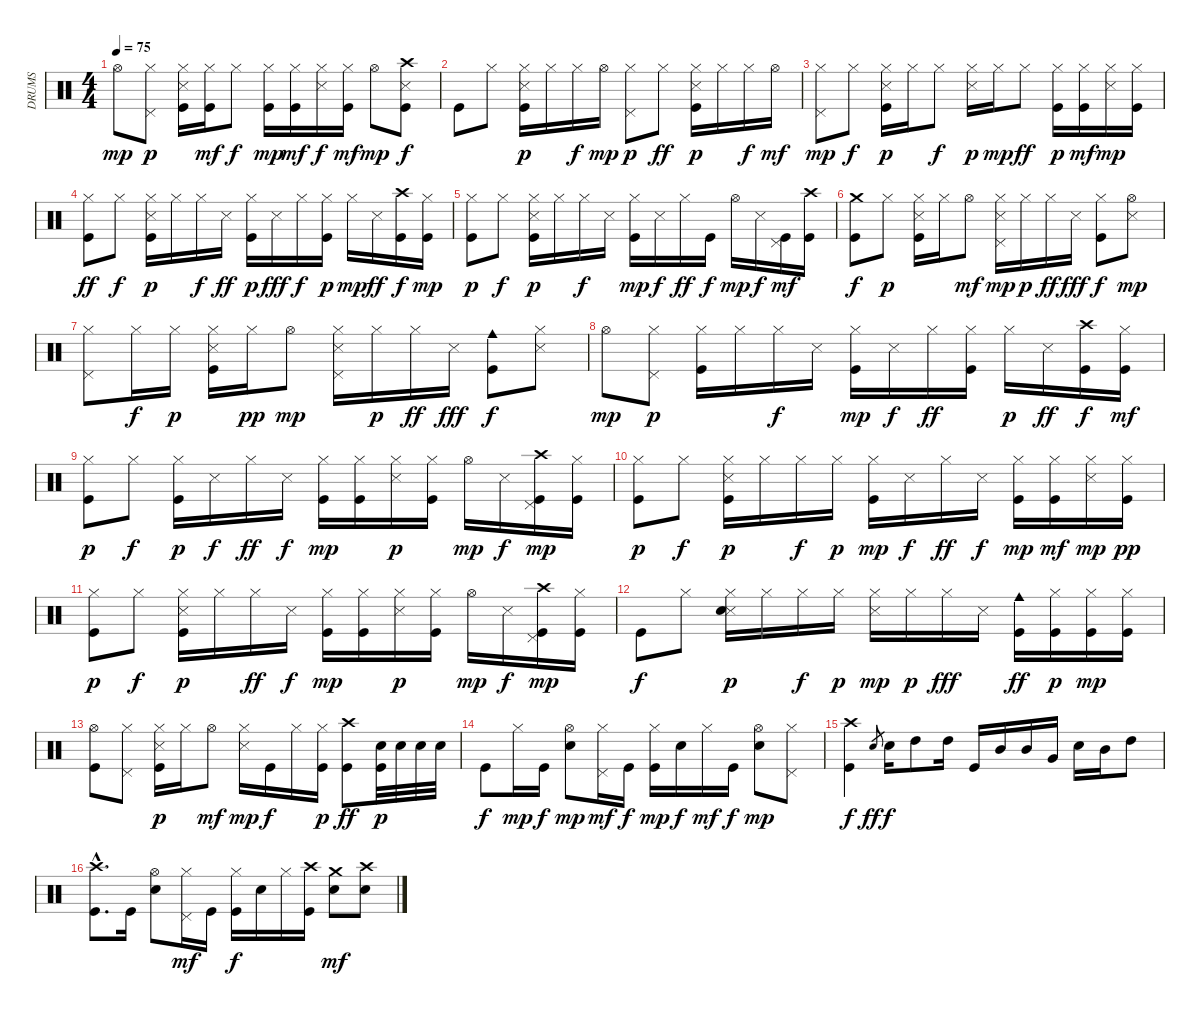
\track ("DRUMS" "DRUMS") {instrument percussion}
\staff {score}
\articulation defaults
\ts (4 4)
\tempo 75
\clef neutral
\ks c "Hi-Hat (open)".8{dy mp}
("Hi-Hat (closed)" "Pedal Hi-Hat (hit)").8{dy p} ("Hi-Hat (closed)" "Snare (side stick) 3" "Kick (hit)").16 ("Hi-Hat (closed)" "Kick (hit)").16{dy mf} "Hi-Hat (closed)".8{dy f} ("Hi-Hat (closed)" "Kick (hit)").16{dy mp} ("Hi-Hat (closed)" "Kick (hit)").16{dy mf} ("Hi-Hat (closed)" "Snare (side stick) 3").16{dy f} ("Hi-Hat (closed)" "Kick (hit)").16{dy mf} "Hi-Hat (open)".8{dy mp} ("Crash high (hit)" "Snare (side stick) 3" "Kick (hit)").8{dy f} |
"Kick (hit)".8 "Hi-Hat (closed)".8 ("Hi-Hat (closed)" "Snare (side stick) 3" "Kick (hit)").16{dy p} "Hi-Hat (closed)".16 "Hi-Hat (closed)".16{dy f} "Hi-Hat (open)".16{dy mp} ("Hi-Hat (closed)" "Pedal Hi-Hat (hit)").8{dy p} "Hi-Hat (closed)".8{dy ff} ("Hi-Hat (closed)" "Snare (side stick) 3" "Kick (hit)").16{dy p} "Hi-Hat (closed)".16 "Hi-Hat (closed)".16{dy f} "Hi-Hat (open)".16{dy mf} |
("Hi-Hat (closed)" "Pedal Hi-Hat (hit)").8{dy mp} "Hi-Hat (closed)".8{dy f} ("Hi-Hat (closed)" "Snare (side stick) 3" "Kick (hit)").16{dy p} "Hi-Hat (closed)".16 "Hi-Hat (closed)".8{dy f} ("Hi-Hat (closed)" "Snare (side stick) 3").16{dy p} "Hi-Hat (closed)".16{dy mp} "Hi-Hat (closed)".8{dy ff} ("Hi-Hat (closed)" "Kick (hit)").16{dy p} ("Hi-Hat (closed)" "Kick (hit)").16{dy mf} ("Hi-Hat (closed)" "Snare (side stick) 3").16{dy mp} ("Hi-Hat (closed)" "Kick (hit)").16 |
("Hi-Hat (closed)" "Kick (hit)").8{dy ff} "Hi-Hat (closed)".8{dy f} ("Hi-Hat (closed)" "Snare (side stick) 3" "Kick (hit)").16{dy p} "Hi-Hat (closed)".16 "Hi-Hat (closed)".16{dy f} "Snare (side stick) 3".16{dy ff} ("Hi-Hat (closed)" "Kick (hit)").16{dy p} "Snare (side stick) 3".16{dy fff} "Hi-Hat (closed)".16{dy f} ("Hi-Hat (closed)" "Kick (hit)").16{dy p} "Hi-Hat (closed)".16{dy mp} "Snare (side stick) 3".16{dy ff} ("Crash high (hit)" "Kick (hit)").16{dy f} ("Hi-Hat (closed)" "Kick (hit)").16{dy mp} |
("Hi-Hat (closed)" "Kick (hit)").8{dy p} "Hi-Hat (closed)".8{dy f} ("Hi-Hat (closed)" "Snare (side stick) 3" "Kick (hit)").16{dy p} "Hi-Hat (closed)".16 "Hi-Hat (closed)".16{dy f} "Snare (side stick) 3".16 ("Hi-Hat (closed)" "Kick (hit)").16{dy mp} "Snare (side stick) 3".16{dy f} "Hi-Hat (closed)".16{dy ff} "Kick (hit)".16{dy f} "Hi-Hat (open)".16{dy mp} "Snare (side stick) 3".16{dy f} ("Pedal Hi-Hat (hit)" "Kick (hit)").16{dy mf} ("Crash high (hit)" "Kick (hit)").16 |
("Crash medium (hit)" "Kick (hit)").8{dy f} "Hi-Hat (closed)".8{dy p} ("Hi-Hat (closed)" "Snare (side stick) 3" "Kick (hit)").16 "Hi-Hat (closed)".16 "Hi-Hat (open)".8{dy mf} ("Hi-Hat (closed)" "Snare (side stick) 3" "Pedal Hi-Hat (hit)").16{dy mp} "Hi-Hat (closed)".16{dy p} "Hi-Hat (closed)".16{dy ff} "Snare (side stick) 3".16{dy fff} ("Hi-Hat (closed)" "Kick (hit)").8{dy f} ("Hi-Hat (open)" "Snare (side stick) 3").8{dy mp} |
("Hi-Hat (closed)" "Pedal Hi-Hat (hit)").8 "Hi-Hat (closed)".16{dy f} "Hi-Hat (closed)".16{dy p} ("Hi-Hat (closed)" "Snare (side stick) 3" "Kick (hit)").16 "Hi-Hat (closed)".16{dy pp} "Hi-Hat (open)".8{dy mp} ("Hi-Hat (closed)" "Snare (side stick) 3" "Pedal Hi-Hat (hit)").16 "Hi-Hat (closed)".16{dy p} "Hi-Hat (closed)".16{dy ff} "Snare (side stick) 3".16{dy fff} ("Cowbell medium (hit)" "Kick (hit)").8{dy f} ("Hi-Hat (closed)" "Snare (side stick) 3").8 |
"Hi-Hat (open)".8{dy mp} ("Hi-Hat (closed)" "Pedal Hi-Hat (hit)").8{dy p} ("Hi-Hat (closed)" "Kick (hit)").16 "Hi-Hat (closed)".16 "Hi-Hat (closed)".16{dy f} "Snare (side stick) 3".16 ("Hi-Hat (closed)" "Kick (hit)").16{dy mp} "Snare (side stick) 3".16{dy f} "Hi-Hat (closed)".16{dy ff} ("Hi-Hat (closed)" "Kick (hit)").16 "Hi-Hat (closed)".16{dy p} "Snare (side stick) 3".16{dy ff} ("Crash high (hit)" "Kick (hit)").16{dy f} ("Hi-Hat (closed)" "Kick (hit)").16{dy mf} |
("Hi-Hat (closed)" "Kick (hit)").8{dy p} "Hi-Hat (closed)".8{dy f} ("Hi-Hat (closed)" "Kick (hit)").16{dy p} "Snare (side stick) 3".16{dy f} "Hi-Hat (closed)".16{dy ff} "Snare (side stick) 3".16{dy f} ("Hi-Hat (closed)" "Kick (hit)").16{dy mp} ("Hi-Hat (closed)" "Kick (hit)").16 ("Hi-Hat (closed)" "Snare (side stick) 3").16{dy p} ("Hi-Hat (closed)" "Kick (hit)").16 "Hi-Hat (open)".16{dy mp} "Snare (side stick) 3".16{dy f} ("Crash high (hit)" "Pedal Hi-Hat (hit)" "Kick (hit)").16{dy mp} ("Hi-Hat (closed)" "Kick (hit)").16 |
("Hi-Hat (closed)" "Kick (hit)").8{dy p} "Hi-Hat (closed)".8{dy f} ("Hi-Hat (closed)" "Snare (side stick) 3" "Kick (hit)").16{dy p} "Hi-Hat (closed)".16 "Hi-Hat (closed)".16{dy f} "Hi-Hat (closed)".16{dy p} ("Hi-Hat (closed)" "Kick (hit)").16{dy mp} "Snare (side stick) 3".16{dy f} "Hi-Hat (closed)".16{dy ff} "Snare (side stick) 3".16{dy f} ("Hi-Hat (closed)" "Kick (hit)").16{dy mp} ("Hi-Hat (closed)" "Kick (hit)").16{dy mf} ("Hi-Hat (closed)" "Snare (side stick) 3").16{dy mp} ("Hi-Hat (closed)" "Kick (hit)").16{dy pp} |
("Hi-Hat (closed)" "Kick (hit)").8{dy p} "Hi-Hat (closed)".8{dy f} ("Hi-Hat (closed)" "Snare (side stick) 3" "Kick (hit)").16{dy p} "Hi-Hat (closed)".16 "Hi-Hat (closed)".16{dy ff} "Snare (side stick) 3".16{dy f} ("Hi-Hat (closed)" "Kick (hit)").16{dy mp} ("Hi-Hat (closed)" "Kick (hit)").16 ("Hi-Hat (closed)" "Snare (side stick) 3").16{dy p} ("Hi-Hat (closed)" "Kick (hit)").16 "Hi-Hat (open)".16{dy mp} "Snare (side stick) 3".16{dy f} ("Crash high (hit)" "Pedal Hi-Hat (hit)" "Kick (hit)").16{dy mp} ("Hi-Hat (closed)" "Kick (hit)").16 |
"Kick (hit)".8{dy f} "Hi-Hat (closed)".8 ("Hi-Hat (closed)" "Snare (side stick) 3" "Snare (hit)").16{dy p} "Hi-Hat (closed)".16 "Hi-Hat (closed)".16{dy f} "Hi-Hat (closed)".16{dy p} ("Hi-Hat (closed)" "Snare (side stick) 3").16{dy mp} "Hi-Hat (closed)".16{dy p} "Hi-Hat (closed)".16{dy fff} "Snare (side stick) 3".16 ("Cowbell medium (hit)" "Kick (hit)").16{dy ff} ("Hi-Hat (closed)" "Kick (hit)").16{dy p} ("Hi-Hat (closed)" "Kick (hit)").16{dy mp} ("Hi-Hat (closed)" "Kick (hit)").16 |
("Hi-Hat (open)" "Kick (hit)").8 ("Hi-Hat (closed)" "Pedal Hi-Hat (hit)").8 ("Hi-Hat (closed)" "Snare (side stick) 3" "Kick (hit)").16{dy p} "Hi-Hat (closed)".16 "Hi-Hat (open)".8{dy mf} ("Hi-Hat (closed)" "Snare (side stick) 3").16{dy mp} "Kick (hit)".16{dy f} "Hi-Hat (closed)".16 ("Hi-Hat (closed)" "Kick (hit)").16{dy p} ("Crash high (hit)" "Kick (hit)").8{dy ff} ("Electric Snare (hit)" "Kick (hit)").32{dy p} "Electric Snare (hit)".32 "Electric Snare (hit)".32 "Electric Snare (hit)".32 |
"Kick (hit)".8{dy f} "Hi-Hat (closed)".16{dy mp} "Kick (hit)".16{dy f} ("Hi-Hat (open)" "Electric Snare (hit)").8{dy mp} ("Hi-Hat (closed)" "Pedal Hi-Hat (hit)").16{dy mf} "Kick (hit)".16{dy f} ("Hi-Hat (closed)" "Kick (hit)").16{dy mp} "Electric Snare (hit)".16{dy f} "Hi-Hat (closed)".16{dy mf} "Kick (hit)".16{dy f} ("Hi-Hat (open)" "Electric Snare (hit)").8{dy mp} ("Hi-Hat (closed)" "Pedal Hi-Hat (hit)").8 |
("Crash high (hit)" "Kick (hit)").4{dy f} "Electric Snare (hit)".8{gr dy ff} "Electric Snare (hit)".16{dy f} "High Tom (hit)".8 "High Tom (hit)".16 "Kick (hit)".16 "Mid Tom (hit)".16 "Mid Tom (hit)".16 "Very Low Tom (hit)".16 "Electric Snare (hit)".16 "Mid Tom (hit)".16 "High Tom (hit)".8 |
("Crash high (hit)"{hac} "Kick (hit)"{hac}).8{d} "Kick (hit)".16 ("Hi-Hat (open)" "Electric Snare (hit)").8 ("Hi-Hat (closed)" "Pedal Hi-Hat (hit)").16{dy mf} "Kick (hit)".16 ("Hi-Hat (closed)" "Kick (hit)").16{dy f} "Electric Snare (hit)".16 "Hi-Hat (closed)".16 ("Crash high (hit)" "Kick (hit)").16 ("Crash medium (hit)" "Electric Snare (hit)").8{dy mf} ("Crash high (hit)" "Electric Snare (hit)").8
